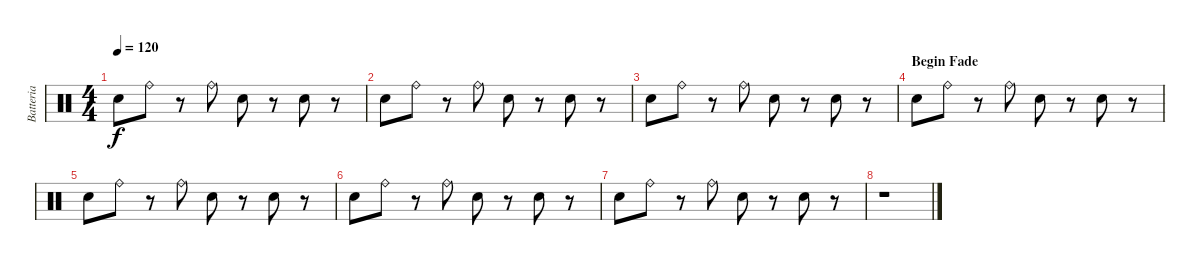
\track ("Batteria" "Batteria") {instrument percussion}
\staff {score}
\articulation defaults
\ts (4 4)
\tempo 120
\clef neutral
\ks c "Metronome (bell)".8{dy f} "Ride (bell)".8
r.8 "Ride (bell)".8 "Metronome (bell)".8 r.8 "Metronome (bell)".8 r.8 |
"Metronome (bell)".8 "Ride (bell)".8 r.8 "Ride (bell)".8 "Metronome (bell)".8 r.8 "Metronome (bell)".8 r.8 |
"Metronome (bell)".8 "Ride (bell)".8 r.8 "Ride (bell)".8 "Metronome (bell)".8 r.8 "Metronome (bell)".8 r.8 |
\section ("" "Begin Fade")
"Metronome (bell)".8{volume 0} "Ride (bell)".8 r.8 "Ride (bell)".8 "Metronome (bell)".8 r.8 "Metronome (bell)".8 r.8 |
"Metronome (bell)".8 "Ride (bell)".8 r.8 "Ride (bell)".8 "Metronome (bell)".8 r.8 "Metronome (bell)".8 r.8 |
"Metronome (bell)".8 "Ride (bell)".8 r.8 "Ride (bell)".8 "Metronome (bell)".8 r.8 "Metronome (bell)".8 r.8 |
"Metronome (bell)".8 "Ride (bell)".8 r.8 "Ride (bell)".8 "Metronome (bell)".8 r.8 "Metronome (bell)".8 r.8 |
r.1
